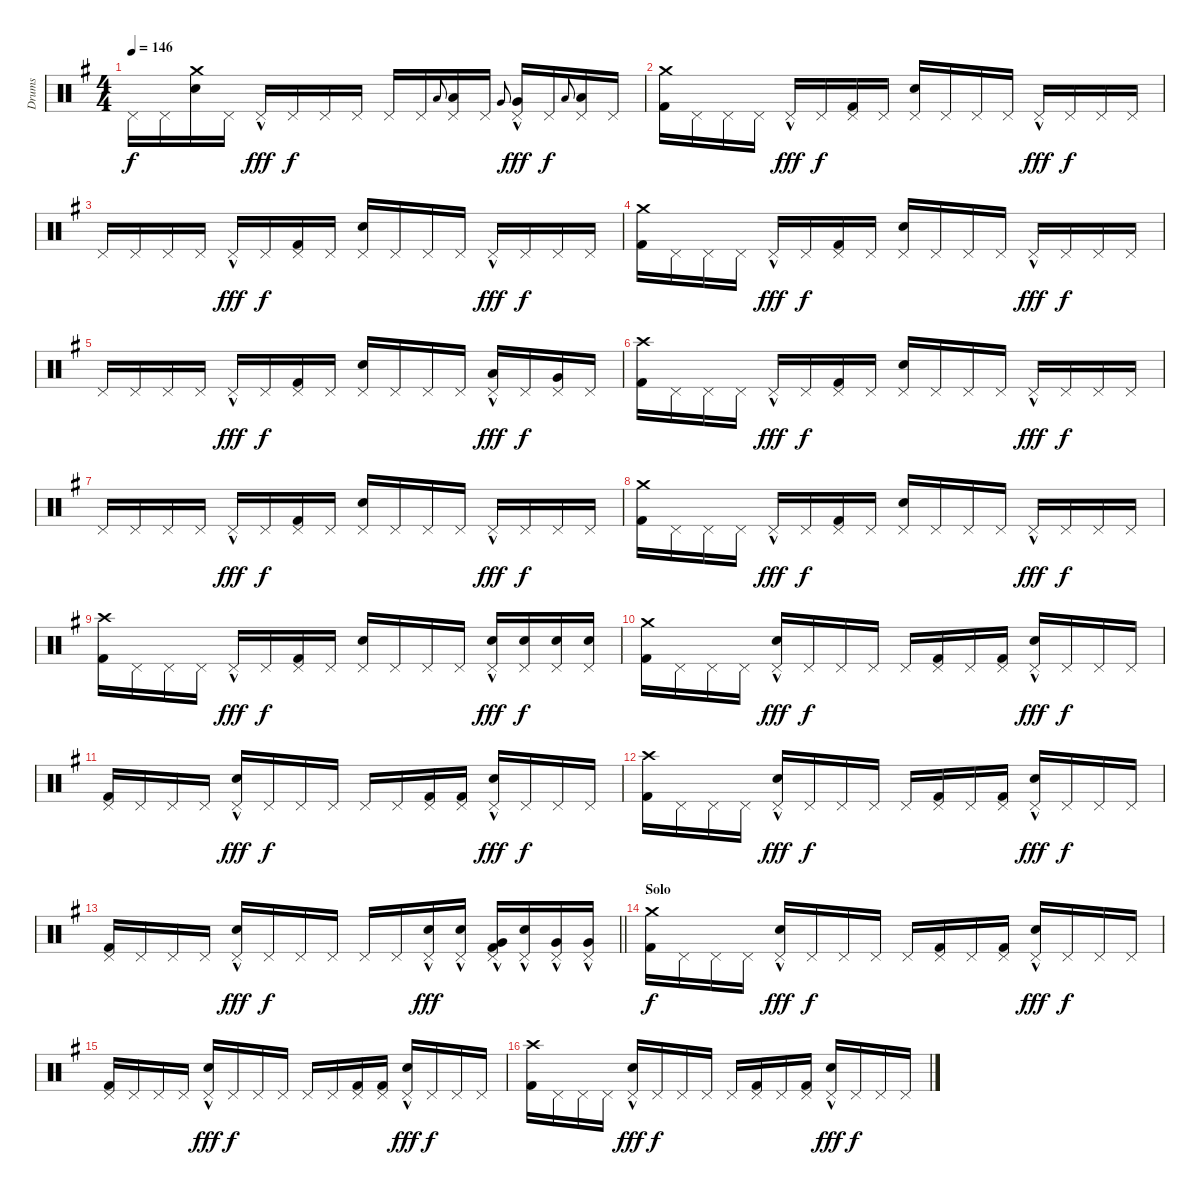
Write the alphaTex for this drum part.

\track ("Drums" "Drums") {instrument percussion}
\staff {score}
\articulation defaults
\ts (4 4)
\tempo 146
\clef neutral
\ks eminor "Pedal Hi-Hat (hit)".16{dy f} "Pedal Hi-Hat (hit)".16
("Crash medium (hit)" "Snare (hit) 2").16 "Pedal Hi-Hat (hit)".16 "Pedal Hi-Hat (hit)"{hac}.16{dy fff} "Pedal Hi-Hat (hit)".16{dy f} "Pedal Hi-Hat (hit)".16 "Pedal Hi-Hat (hit)".16 "Pedal Hi-Hat (hit)".16 "Pedal Hi-Hat (hit)".16 "Low Tom (hit)".8{gr onbeat} ("Pedal Hi-Hat (hit)" "Low Tom (hit)").16 "Pedal Hi-Hat (hit)".16 "Very Low Tom (hit)".8{gr onbeat} ("Pedal Hi-Hat (hit)"{hac} "Very Low Tom (hit)").16{dy fff} "Pedal Hi-Hat (hit)".16{dy f} "Low Floor Tom (hit)".8{gr onbeat} ("Pedal Hi-Hat (hit)" "Low Floor Tom (hit)").16 "Pedal Hi-Hat (hit)".16 |
("Crash medium (hit)" "Kick (hit) 2").16 "Pedal Hi-Hat (hit)".16 "Pedal Hi-Hat (hit)".16 "Pedal Hi-Hat (hit)".16 "Pedal Hi-Hat (hit)"{hac}.16{dy fff} "Pedal Hi-Hat (hit)".16{dy f} ("Pedal Hi-Hat (hit)" "Kick (hit) 2").16 "Pedal Hi-Hat (hit)".16 ("Pedal Hi-Hat (hit)" "Snare (hit) 2").16 "Pedal Hi-Hat (hit)".16 "Pedal Hi-Hat (hit)".16 "Pedal Hi-Hat (hit)".16 "Pedal Hi-Hat (hit)"{hac}.16{dy fff} "Pedal Hi-Hat (hit)".16{dy f} "Pedal Hi-Hat (hit)".16 "Pedal Hi-Hat (hit)".16 |
"Pedal Hi-Hat (hit)".16 "Pedal Hi-Hat (hit)".16 "Pedal Hi-Hat (hit)".16 "Pedal Hi-Hat (hit)".16 "Pedal Hi-Hat (hit)"{hac}.16{dy fff} "Pedal Hi-Hat (hit)".16{dy f} ("Pedal Hi-Hat (hit)" "Kick (hit) 2").16 "Pedal Hi-Hat (hit)".16 ("Pedal Hi-Hat (hit)" "Snare (hit) 2").16 "Pedal Hi-Hat (hit)".16 "Pedal Hi-Hat (hit)".16 "Pedal Hi-Hat (hit)".16 "Pedal Hi-Hat (hit)"{hac}.16{dy fff} "Pedal Hi-Hat (hit)".16{dy f} "Pedal Hi-Hat (hit)".16 "Pedal Hi-Hat (hit)".16 |
("Crash medium (hit)" "Kick (hit) 2").16 "Pedal Hi-Hat (hit)".16 "Pedal Hi-Hat (hit)".16 "Pedal Hi-Hat (hit)".16 "Pedal Hi-Hat (hit)"{hac}.16{dy fff} "Pedal Hi-Hat (hit)".16{dy f} ("Pedal Hi-Hat (hit)" "Kick (hit) 2").16 "Pedal Hi-Hat (hit)".16 ("Pedal Hi-Hat (hit)" "Snare (hit) 2").16 "Pedal Hi-Hat (hit)".16 "Pedal Hi-Hat (hit)".16 "Pedal Hi-Hat (hit)".16 "Pedal Hi-Hat (hit)"{hac}.16{dy fff} "Pedal Hi-Hat (hit)".16{dy f} "Pedal Hi-Hat (hit)".16 "Pedal Hi-Hat (hit)".16 |
"Pedal Hi-Hat (hit)".16 "Pedal Hi-Hat (hit)".16 "Pedal Hi-Hat (hit)".16 "Pedal Hi-Hat (hit)".16 "Pedal Hi-Hat (hit)"{hac}.16{dy fff} "Pedal Hi-Hat (hit)".16{dy f} ("Pedal Hi-Hat (hit)" "Kick (hit) 2").16 "Pedal Hi-Hat (hit)".16 ("Pedal Hi-Hat (hit)" "Snare (hit) 2").16 "Pedal Hi-Hat (hit)".16 "Pedal Hi-Hat (hit)".16 "Pedal Hi-Hat (hit)".16 ("Pedal Hi-Hat (hit)"{hac} "Low Tom (hit)").16{dy fff} "Pedal Hi-Hat (hit)".16{dy f} ("Pedal Hi-Hat (hit)" "Very Low Tom (hit)").16 "Pedal Hi-Hat (hit)".16 |
("Crash high (hit)" "Kick (hit) 2").16 "Pedal Hi-Hat (hit)".16 "Pedal Hi-Hat (hit)".16 "Pedal Hi-Hat (hit)".16 "Pedal Hi-Hat (hit)"{hac}.16{dy fff} "Pedal Hi-Hat (hit)".16{dy f} ("Pedal Hi-Hat (hit)" "Kick (hit) 2").16 "Pedal Hi-Hat (hit)".16 ("Pedal Hi-Hat (hit)" "Snare (hit) 2").16 "Pedal Hi-Hat (hit)".16 "Pedal Hi-Hat (hit)".16 "Pedal Hi-Hat (hit)".16 "Pedal Hi-Hat (hit)"{hac}.16{dy fff} "Pedal Hi-Hat (hit)".16{dy f} "Pedal Hi-Hat (hit)".16 "Pedal Hi-Hat (hit)".16 |
"Pedal Hi-Hat (hit)".16 "Pedal Hi-Hat (hit)".16 "Pedal Hi-Hat (hit)".16 "Pedal Hi-Hat (hit)".16 "Pedal Hi-Hat (hit)"{hac}.16{dy fff} "Pedal Hi-Hat (hit)".16{dy f} ("Pedal Hi-Hat (hit)" "Kick (hit) 2").16 "Pedal Hi-Hat (hit)".16 ("Pedal Hi-Hat (hit)" "Snare (hit) 2").16 "Pedal Hi-Hat (hit)".16 "Pedal Hi-Hat (hit)".16 "Pedal Hi-Hat (hit)".16 "Pedal Hi-Hat (hit)"{hac}.16{dy fff} "Pedal Hi-Hat (hit)".16{dy f} "Pedal Hi-Hat (hit)".16 "Pedal Hi-Hat (hit)".16 |
("Crash medium (hit)" "Kick (hit) 2").16 "Pedal Hi-Hat (hit)".16 "Pedal Hi-Hat (hit)".16 "Pedal Hi-Hat (hit)".16 "Pedal Hi-Hat (hit)"{hac}.16{dy fff} "Pedal Hi-Hat (hit)".16{dy f} ("Pedal Hi-Hat (hit)" "Kick (hit) 2").16 "Pedal Hi-Hat (hit)".16 ("Pedal Hi-Hat (hit)" "Snare (hit) 2").16 "Pedal Hi-Hat (hit)".16 "Pedal Hi-Hat (hit)".16 "Pedal Hi-Hat (hit)".16 "Pedal Hi-Hat (hit)"{hac}.16{dy fff} "Pedal Hi-Hat (hit)".16{dy f} "Pedal Hi-Hat (hit)".16 "Pedal Hi-Hat (hit)".16 |
("Crash high (hit)" "Kick (hit) 2").16 "Pedal Hi-Hat (hit)".16 "Pedal Hi-Hat (hit)".16 "Pedal Hi-Hat (hit)".16 "Pedal Hi-Hat (hit)"{hac}.16{dy fff} "Pedal Hi-Hat (hit)".16{dy f} ("Pedal Hi-Hat (hit)" "Kick (hit) 2").16 "Pedal Hi-Hat (hit)".16 ("Pedal Hi-Hat (hit)" "Snare (hit) 2").16 "Pedal Hi-Hat (hit)".16 "Pedal Hi-Hat (hit)".16 "Pedal Hi-Hat (hit)".16 ("Pedal Hi-Hat (hit)"{hac} "Snare (hit) 2").16{dy fff} ("Pedal Hi-Hat (hit)" "Snare (hit) 2").16{dy f} ("Pedal Hi-Hat (hit)" "Snare (hit) 2").16 ("Pedal Hi-Hat (hit)" "Snare (hit) 2").16 |
("Crash medium (hit)" "Kick (hit) 2").16 "Pedal Hi-Hat (hit)".16 "Pedal Hi-Hat (hit)".16 "Pedal Hi-Hat (hit)".16 ("Pedal Hi-Hat (hit)"{hac} "Snare (hit) 2").16{dy fff} "Pedal Hi-Hat (hit)".16{dy f} "Pedal Hi-Hat (hit)".16 "Pedal Hi-Hat (hit)".16 "Pedal Hi-Hat (hit)".16 ("Pedal Hi-Hat (hit)" "Kick (hit) 2").16 "Pedal Hi-Hat (hit)".16 ("Pedal Hi-Hat (hit)" "Kick (hit) 2").16 ("Pedal Hi-Hat (hit)"{hac} "Snare (hit) 2").16{dy fff} "Pedal Hi-Hat (hit)".16{dy f} "Pedal Hi-Hat (hit)".16 "Pedal Hi-Hat (hit)".16 |
("Pedal Hi-Hat (hit)" "Kick (hit) 2").16 "Pedal Hi-Hat (hit)".16 "Pedal Hi-Hat (hit)".16 "Pedal Hi-Hat (hit)".16 ("Pedal Hi-Hat (hit)"{hac} "Snare (hit) 2").16{dy fff} "Pedal Hi-Hat (hit)".16{dy f} "Pedal Hi-Hat (hit)".16 "Pedal Hi-Hat (hit)".16 "Pedal Hi-Hat (hit)".16 "Pedal Hi-Hat (hit)".16 ("Pedal Hi-Hat (hit)" "Kick (hit) 2").16 ("Pedal Hi-Hat (hit)" "Kick (hit) 2").16 ("Pedal Hi-Hat (hit)"{hac} "Snare (hit) 2").16{dy fff} "Pedal Hi-Hat (hit)".16{dy f} "Pedal Hi-Hat (hit)".16 "Pedal Hi-Hat (hit)".16 |
("Crash high (hit)" "Kick (hit) 2").16 "Pedal Hi-Hat (hit)".16 "Pedal Hi-Hat (hit)".16 "Pedal Hi-Hat (hit)".16 ("Pedal Hi-Hat (hit)"{hac} "Snare (hit) 2").16{dy fff} "Pedal Hi-Hat (hit)".16{dy f} "Pedal Hi-Hat (hit)".16 "Pedal Hi-Hat (hit)".16 "Pedal Hi-Hat (hit)".16 ("Pedal Hi-Hat (hit)" "Kick (hit) 2").16 "Pedal Hi-Hat (hit)".16 ("Pedal Hi-Hat (hit)" "Kick (hit) 2").16 ("Pedal Hi-Hat (hit)"{hac} "Snare (hit) 2").16{dy fff} "Pedal Hi-Hat (hit)".16{dy f} "Pedal Hi-Hat (hit)".16 "Pedal Hi-Hat (hit)".16 |
\barLineRight lightlight
("Pedal Hi-Hat (hit)" "Kick (hit) 2").16 "Pedal Hi-Hat (hit)".16 "Pedal Hi-Hat (hit)".16 "Pedal Hi-Hat (hit)".16 ("Pedal Hi-Hat (hit)"{hac} "Snare (hit) 2").16{dy fff} "Pedal Hi-Hat (hit)".16{dy f} "Pedal Hi-Hat (hit)".16 "Pedal Hi-Hat (hit)".16 "Pedal Hi-Hat (hit)".16 "Pedal Hi-Hat (hit)".16 ("Pedal Hi-Hat (hit)" "Snare (hit) 2"{hac}).16{dy fff} ("Pedal Hi-Hat (hit)" "Snare (hit) 2"{hac}).16 ("Pedal Hi-Hat (hit)"{hac} "Very Low Tom (hit)"{hac} "Kick (hit) 2").16 ("Pedal Hi-Hat (hit)" "Snare (hit) 2"{hac}).16 ("Pedal Hi-Hat (hit)" "Very Low Tom (hit)"{hac}).16 ("Pedal Hi-Hat (hit)" "Very Low Tom (hit)"{hac}).16 |
\section ("" "Solo")
("Crash medium (hit)" "Kick (hit) 2").16{dy f} "Pedal Hi-Hat (hit)".16 "Pedal Hi-Hat (hit)".16 "Pedal Hi-Hat (hit)".16 ("Pedal Hi-Hat (hit)"{hac} "Snare (hit) 2").16{dy fff} "Pedal Hi-Hat (hit)".16{dy f} "Pedal Hi-Hat (hit)".16 "Pedal Hi-Hat (hit)".16 "Pedal Hi-Hat (hit)".16 ("Pedal Hi-Hat (hit)" "Kick (hit) 2").16 "Pedal Hi-Hat (hit)".16 ("Pedal Hi-Hat (hit)" "Kick (hit) 2").16 ("Pedal Hi-Hat (hit)"{hac} "Snare (hit) 2").16{dy fff} "Pedal Hi-Hat (hit)".16{dy f} "Pedal Hi-Hat (hit)".16 "Pedal Hi-Hat (hit)".16 |
("Pedal Hi-Hat (hit)" "Kick (hit) 2").16 "Pedal Hi-Hat (hit)".16 "Pedal Hi-Hat (hit)".16 "Pedal Hi-Hat (hit)".16 ("Pedal Hi-Hat (hit)"{hac} "Snare (hit) 2").16{dy fff} "Pedal Hi-Hat (hit)".16{dy f} "Pedal Hi-Hat (hit)".16 "Pedal Hi-Hat (hit)".16 "Pedal Hi-Hat (hit)".16 "Pedal Hi-Hat (hit)".16 ("Pedal Hi-Hat (hit)" "Kick (hit) 2").16 ("Pedal Hi-Hat (hit)" "Kick (hit) 2").16 ("Pedal Hi-Hat (hit)"{hac} "Snare (hit) 2").16{dy fff} "Pedal Hi-Hat (hit)".16{dy f} "Pedal Hi-Hat (hit)".16 "Pedal Hi-Hat (hit)".16 |
("Crash high (hit)" "Kick (hit) 2").16 "Pedal Hi-Hat (hit)".16 "Pedal Hi-Hat (hit)".16 "Pedal Hi-Hat (hit)".16 ("Pedal Hi-Hat (hit)"{hac} "Snare (hit) 2").16{dy fff} "Pedal Hi-Hat (hit)".16{dy f} "Pedal Hi-Hat (hit)".16 "Pedal Hi-Hat (hit)".16 "Pedal Hi-Hat (hit)".16 ("Pedal Hi-Hat (hit)" "Kick (hit) 2").16 "Pedal Hi-Hat (hit)".16 ("Pedal Hi-Hat (hit)" "Kick (hit) 2").16 ("Pedal Hi-Hat (hit)"{hac} "Snare (hit) 2").16{dy fff} "Pedal Hi-Hat (hit)".16{dy f} "Pedal Hi-Hat (hit)".16 "Pedal Hi-Hat (hit)".16
